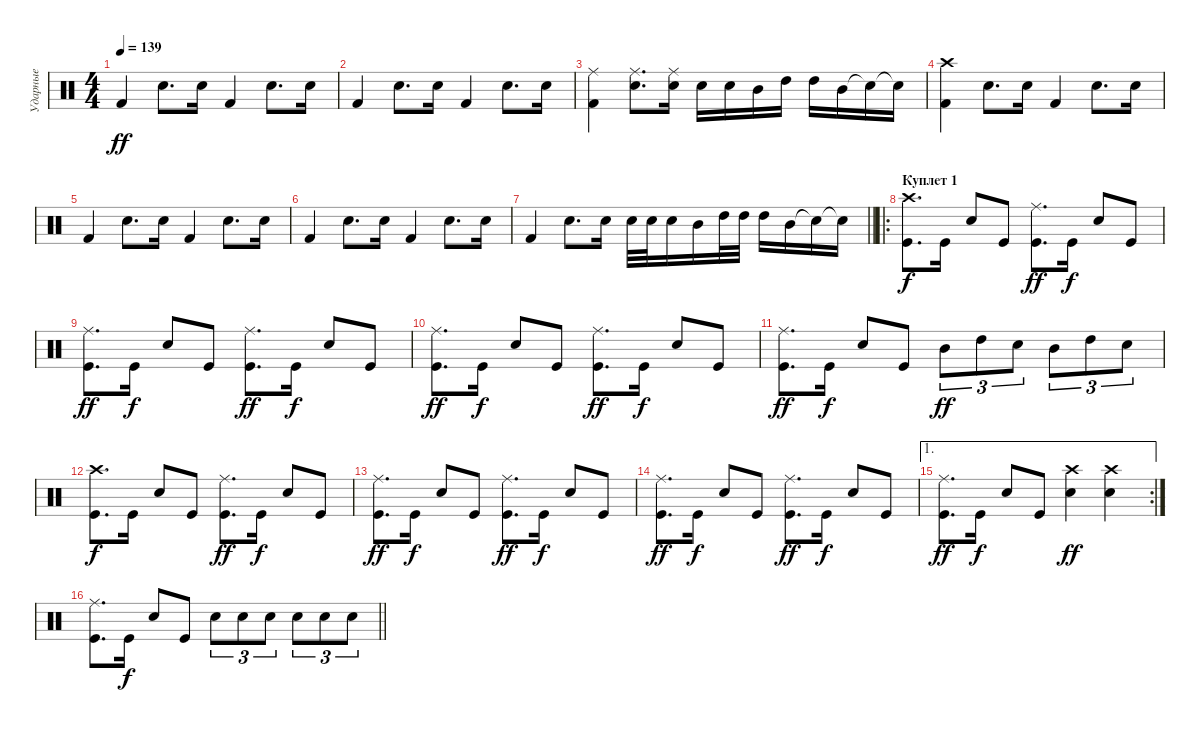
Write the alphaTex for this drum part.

\track ("Ударные" "Ударные") {instrument percussion}
\staff {score}
\articulation defaults
\ts (4 4)
\tempo 139
\clef neutral
\ks c "Kick (hit) 2".4{dy ff} "Electric Snare (hit)".8{d} "Electric Snare (hit)".16 "Kick (hit) 2".4 "Electric Snare (hit)".8{d} "Electric Snare (hit)".16
|
"Kick (hit) 2".4 "Electric Snare (hit)".8{d} "Electric Snare (hit)".16 "Kick (hit) 2".4 "Electric Snare (hit)".8{d} "Electric Snare (hit)".16 |
("Kick (hit) 2" "Ride (middle)").4 ("Electric Snare (hit)" "Ride (middle)").8{d} ("Electric Snare (hit)" "Ride (middle)").16 "Electric Snare (hit)".16 "Electric Snare (hit)".16 "Mid Tom (hit)".16 "High Tom (hit)".16 "High Tom (hit)".16 "Mid Tom (hit)".16 "Snare (hit)"{t}.16 "Snare (hit)"{t}.16 |
("Kick (hit) 2" "Crash high (hit)").4 "Electric Snare (hit)".8{d} "Electric Snare (hit)".16 "Kick (hit) 2".4 "Electric Snare (hit)".8{d} "Electric Snare (hit)".16 |
"Kick (hit) 2".4 "Electric Snare (hit)".8{d} "Electric Snare (hit)".16 "Kick (hit) 2".4 "Electric Snare (hit)".8{d} "Electric Snare (hit)".16 |
"Kick (hit) 2".4 "Electric Snare (hit)".8{d} "Electric Snare (hit)".16 "Kick (hit) 2".4 "Electric Snare (hit)".8{d} "Electric Snare (hit)".16 |
\barLineRight lightlight "Kick (hit) 2".4 "Electric Snare (hit)".8{d} "Electric Snare (hit)".16 "Electric Snare (hit)".32 "Electric Snare (hit)".32 "Electric Snare (hit)".16 "Mid Tom (hit)".16 "High Tom (hit)".32 "High Tom (hit)".32 "High Tom (hit)".16 "Mid Tom (hit)".16 "Snare (hit)"{t}.16 "Snare (hit)"{t}.16
|
\ro
\section ("" "Куплет 1")
("Kick (hit)" "Crash high (hit)").8{d dy f} "Kick (hit)".16 "Snare (hit) 2".8 "Kick (hit)".8 ("Kick (hit)" "Ride (middle)").8{d dy ff} "Kick (hit)".16{dy f} "Snare (hit) 2".8 "Kick (hit)".8 |
("Kick (hit)" "Ride (middle)").8{d dy ff} "Kick (hit)".16{dy f} "Snare (hit) 2".8 "Kick (hit)".8 ("Kick (hit)" "Ride (middle)").8{d dy ff} "Kick (hit)".16{dy f} "Snare (hit) 2".8 "Kick (hit)".8 |
("Kick (hit)" "Ride (middle)").8{d dy ff} "Kick (hit)".16{dy f} "Snare (hit) 2".8 "Kick (hit)".8 ("Kick (hit)" "Ride (middle)").8{d dy ff} "Kick (hit)".16{dy f} "Snare (hit) 2".8 "Kick (hit)".8 |
("Kick (hit)" "Ride (middle)").8{d dy ff} "Kick (hit)".16{dy f} "Snare (hit) 2".8 "Kick (hit)".8 "Mid Tom (hit)".8{tu (3 2) dy ff} "High Tom (hit)".8{tu (3 2)} "Snare (hit) 2".8{tu (3 2)} "Mid Tom (hit)".8{tu (3 2)} "High Tom (hit)".8{tu (3 2)} "Snare (hit) 2".8{tu (3 2)} |
("Kick (hit)" "Crash high (hit)").8{d dy f} "Kick (hit)".16 "Snare (hit) 2".8 "Kick (hit)".8 ("Kick (hit)" "Ride (middle)").8{d dy ff} "Kick (hit)".16{dy f} "Snare (hit) 2".8 "Kick (hit)".8 |
("Kick (hit)" "Ride (middle)").8{d dy ff} "Kick (hit)".16{dy f} "Snare (hit) 2".8 "Kick (hit)".8 ("Kick (hit)" "Ride (middle)").8{d dy ff} "Kick (hit)".16{dy f} "Snare (hit) 2".8 "Kick (hit)".8 |
("Kick (hit)" "Ride (middle)").8{d dy ff} "Kick (hit)".16{dy f} "Snare (hit) 2".8 "Kick (hit)".8 ("Kick (hit)" "Ride (middle)").8{d dy ff} "Kick (hit)".16{dy f} "Snare (hit) 2".8 "Kick (hit)".8 |
\ae 1
\rc 2
("Kick (hit)" "Ride (middle)").8{d dy ff} "Kick (hit)".16{dy f} "Snare (hit) 2".8 "Kick (hit)".8 ("Snare (hit) 2" "Crash high (hit)").4{dy ff} ("Snare (hit) 2" "Crash high (hit)").4 |
\barLineRight lightlight
("Kick (hit)" "Ride (middle)").8{d} "Kick (hit)".16{dy f} "Snare (hit) 2".8 "Kick (hit)".8 "Snare (hit) 2".8{tu (3 2)} "Snare (hit) 2".8{tu (3 2)} "Snare (hit) 2".8{tu (3 2)} "Snare (hit) 2".8{tu (3 2)} "Snare (hit) 2".8{tu (3 2)} "Snare (hit) 2".8{tu (3 2)}
